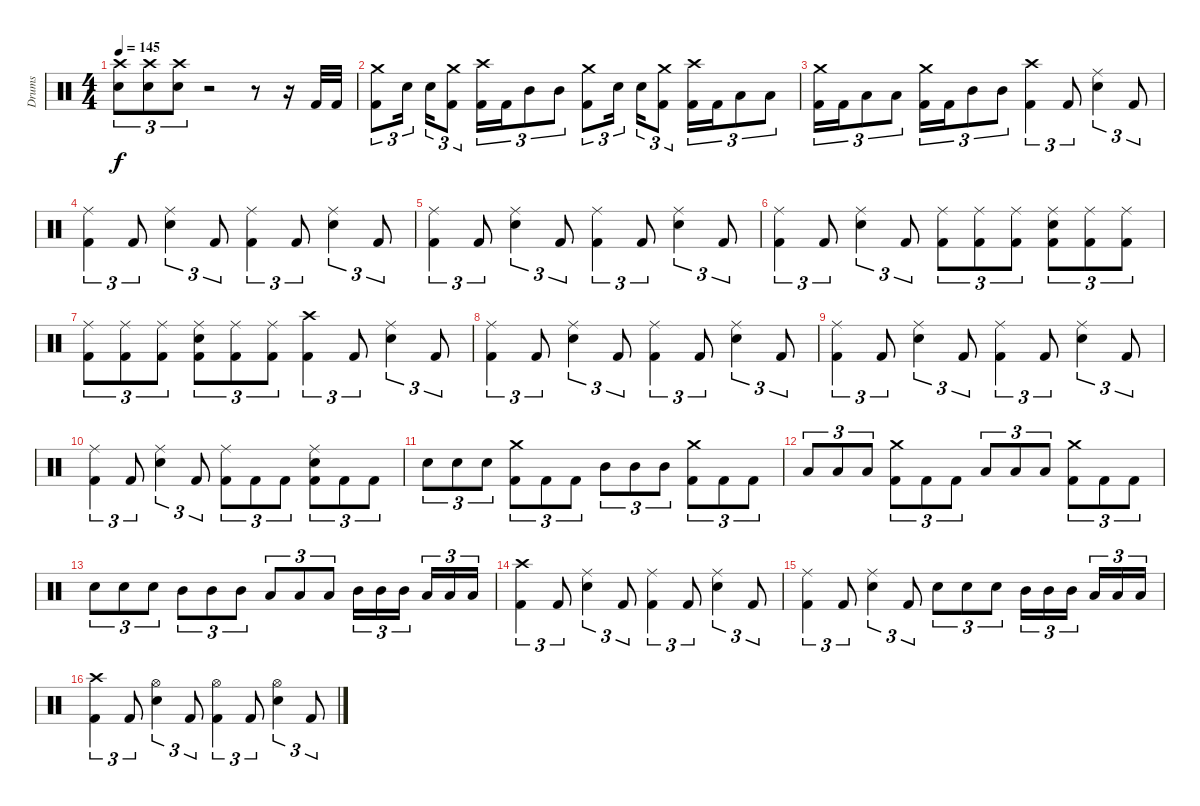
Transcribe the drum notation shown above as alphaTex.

\track ("Drums" "Drums") {instrument percussion}
\staff {score}
\articulation defaults
\ts (4 4)
\tempo 145
\clef neutral
\ks c
("Crash high (hit)" "Electric Snare (hit)").8{tu (3 2) dy f} ("Crash high (hit)" "Electric Snare (hit)").8{tu (3 2)} ("Crash high (hit)" "Electric Snare (hit)").8{tu (3 2)} r.2 r.8 r.16 "Kick (hit) 2".32 "Kick (hit) 2".32 |
("Crash medium (hit)" "Kick (hit) 2").8{tu (3 2)} "Electric Snare (hit)".16{tu (3 2)} "Electric Snare (hit)".16{tu (3 2)} ("Crash medium (hit)" "Kick (hit) 2").8{tu (3 2)} ("Crash high (hit)" "Kick (hit) 2").16{tu (3 2)} "Kick (hit) 2".16{tu (3 2)} "Mid Tom (hit)".8{tu (3 2)} "Mid Tom (hit)".8{tu (3 2)} ("Crash medium (hit)" "Kick (hit) 2").8{tu (3 2)} "Electric Snare (hit)".16{tu (3 2)} "Electric Snare (hit)".16{tu (3 2)} ("Crash medium (hit)" "Kick (hit) 2").8{tu (3 2)} ("Crash high (hit)" "Kick (hit) 2").16{tu (3 2)} "Kick (hit) 2".16{tu (3 2)} "Low Tom (hit)".8{tu (3 2)} "Low Tom (hit)".8{tu (3 2)} |
("Crash medium (hit)" "Kick (hit) 2").16{tu (3 2)} "Kick (hit) 2".16{tu (3 2)} "Low Tom (hit)".8{tu (3 2)} "Low Tom (hit)".8{tu (3 2)} ("Crash medium (hit)" "Kick (hit) 2").16{tu (3 2)} "Kick (hit) 2".16{tu (3 2)} "Mid Tom (hit)".8{tu (3 2)} "Mid Tom (hit)".8{tu (3 2)} ("Crash high (hit)" "Kick (hit) 2").4{tu (3 2)} "Kick (hit) 2".8{tu (3 2)} ("Ride (middle)" "Electric Snare (hit)").4{tu (3 2)} "Kick (hit) 2".8{tu (3 2)} |
("Ride (middle)" "Kick (hit) 2").4{tu (3 2)} "Kick (hit) 2".8{tu (3 2)} ("Ride (middle)" "Electric Snare (hit)").4{tu (3 2)} "Kick (hit) 2".8{tu (3 2)} ("Ride (middle)" "Kick (hit) 2").4{tu (3 2)} "Kick (hit) 2".8{tu (3 2)} ("Ride (middle)" "Electric Snare (hit)").4{tu (3 2)} "Kick (hit) 2".8{tu (3 2)} |
("Ride (middle)" "Kick (hit) 2").4{tu (3 2)} "Kick (hit) 2".8{tu (3 2)} ("Ride (middle)" "Electric Snare (hit)").4{tu (3 2)} "Kick (hit) 2".8{tu (3 2)} ("Ride (middle)" "Kick (hit) 2").4{tu (3 2)} "Kick (hit) 2".8{tu (3 2)} ("Ride (middle)" "Electric Snare (hit)").4{tu (3 2)} "Kick (hit) 2".8{tu (3 2)} |
("Ride (middle)" "Kick (hit) 2").4{tu (3 2)} "Kick (hit) 2".8{tu (3 2)} ("Ride (middle)" "Electric Snare (hit)").4{tu (3 2)} "Kick (hit) 2".8{tu (3 2)} ("Ride (middle)" "Kick (hit) 2").8{tu (3 2)} ("Ride (middle)" "Kick (hit) 2").8{tu (3 2)} ("Ride (middle)" "Kick (hit) 2").8{tu (3 2)} ("Ride (middle)" "Electric Snare (hit)" "Kick (hit) 2").8{tu (3 2)} ("Ride (middle)" "Kick (hit) 2").8{tu (3 2)} ("Ride (middle)" "Kick (hit) 2").8{tu (3 2)} |
("Ride (middle)" "Kick (hit) 2").8{tu (3 2)} ("Ride (middle)" "Kick (hit) 2").8{tu (3 2)} ("Ride (middle)" "Kick (hit) 2").8{tu (3 2)} ("Ride (middle)" "Electric Snare (hit)" "Kick (hit) 2").8{tu (3 2)} ("Ride (middle)" "Kick (hit) 2").8{tu (3 2)} ("Ride (middle)" "Kick (hit) 2").8{tu (3 2)} ("Crash high (hit)" "Kick (hit) 2").4{tu (3 2)} "Kick (hit) 2".8{tu (3 2)} ("Ride (middle)" "Electric Snare (hit)").4{tu (3 2)} "Kick (hit) 2".8{tu (3 2)} |
("Ride (middle)" "Kick (hit) 2").4{tu (3 2)} "Kick (hit) 2".8{tu (3 2)} ("Ride (middle)" "Electric Snare (hit)").4{tu (3 2)} "Kick (hit) 2".8{tu (3 2)} ("Ride (middle)" "Kick (hit) 2").4{tu (3 2)} "Kick (hit) 2".8{tu (3 2)} ("Ride (middle)" "Electric Snare (hit)").4{tu (3 2)} "Kick (hit) 2".8{tu (3 2)} |
("Ride (middle)" "Kick (hit) 2").4{tu (3 2)} "Kick (hit) 2".8{tu (3 2)} ("Ride (middle)" "Electric Snare (hit)").4{tu (3 2)} "Kick (hit) 2".8{tu (3 2)} ("Ride (middle)" "Kick (hit) 2").4{tu (3 2)} "Kick (hit) 2".8{tu (3 2)} ("Ride (middle)" "Electric Snare (hit)").4{tu (3 2)} "Kick (hit) 2".8{tu (3 2)} |
("Ride (middle)" "Kick (hit) 2").4{tu (3 2)} "Kick (hit) 2".8{tu (3 2)} ("Ride (middle)" "Electric Snare (hit)").4{tu (3 2)} "Kick (hit) 2".8{tu (3 2)} ("Ride (middle)" "Kick (hit) 2").8{tu (3 2)} "Kick (hit) 2".8{tu (3 2)} "Kick (hit) 2".8{tu (3 2)} ("Ride (middle)" "Electric Snare (hit)" "Kick (hit) 2").8{tu (3 2)} "Kick (hit) 2".8{tu (3 2)} "Kick (hit) 2".8{tu (3 2)} |
"Electric Snare (hit)".8{tu (3 2)} "Electric Snare (hit)".8{tu (3 2)} "Electric Snare (hit)".8{tu (3 2)} ("Crash medium (hit)" "Kick (hit) 2").8{tu (3 2)} "Kick (hit) 2".8{tu (3 2)} "Kick (hit) 2".8{tu (3 2)} "Mid Tom (hit)".8{tu (3 2)} "Mid Tom (hit)".8{tu (3 2)} "Mid Tom (hit)".8{tu (3 2)} ("Crash medium (hit)" "Kick (hit) 2").8{tu (3 2)} "Kick (hit) 2".8{tu (3 2)} "Kick (hit) 2".8{tu (3 2)} |
"Low Tom (hit)".8{tu (3 2)} "Low Tom (hit)".8{tu (3 2)} "Low Tom (hit)".8{tu (3 2)} ("Crash medium (hit)" "Kick (hit) 2").8{tu (3 2)} "Kick (hit) 2".8{tu (3 2)} "Kick (hit) 2".8{tu (3 2)} "Low Floor Tom (hit)".8{tu (3 2)} "Low Floor Tom (hit)".8{tu (3 2)} "Low Floor Tom (hit)".8{tu (3 2)} ("Crash medium (hit)" "Kick (hit) 2").8{tu (3 2)} "Kick (hit) 2".8{tu (3 2)} "Kick (hit) 2".8{tu (3 2)} |
"Electric Snare (hit)".8{tu (3 2)} "Electric Snare (hit)".8{tu (3 2)} "Electric Snare (hit)".8{tu (3 2)} "Mid Tom (hit)".8{tu (3 2)} "Mid Tom (hit)".8{tu (3 2)} "Mid Tom (hit)".8{tu (3 2)} "Low Tom (hit)".8{tu (3 2)} "Low Tom (hit)".8{tu (3 2)} "Low Tom (hit)".8{tu (3 2)} "Mid Tom (hit)".16{tu (3 2)} "Mid Tom (hit)".16{tu (3 2)} "Mid Tom (hit)".16{tu (3 2)} "Low Tom (hit)".16{tu (3 2)} "Low Tom (hit)".16{tu (3 2)} "Low Tom (hit)".16{tu (3 2)} |
("Crash high (hit)" "Kick (hit) 2").4{tu (3 2)} "Kick (hit) 2".8{tu (3 2)} ("Ride (middle)" "Electric Snare (hit)").4{tu (3 2)} "Kick (hit) 2".8{tu (3 2)} ("Ride (middle)" "Kick (hit) 2").4{tu (3 2)} "Kick (hit) 2".8{tu (3 2)} ("Ride (middle)" "Electric Snare (hit)").4{tu (3 2)} "Kick (hit) 2".8{tu (3 2)} |
("Ride (middle)" "Kick (hit) 2").4{tu (3 2)} "Kick (hit) 2".8{tu (3 2)} ("Ride (middle)" "Electric Snare (hit)").4{tu (3 2)} "Kick (hit) 2".8{tu (3 2)} "Electric Snare (hit)".8{tu (3 2)} "Electric Snare (hit)".8{tu (3 2)} "Electric Snare (hit)".8{tu (3 2)} "Mid Tom (hit)".16{tu (3 2)} "Mid Tom (hit)".16{tu (3 2)} "Mid Tom (hit)".16{tu (3 2)} "Low Tom (hit)".16{tu (3 2)} "Low Tom (hit)".16{tu (3 2)} "Low Tom (hit)".16{tu (3 2)} |
("Crash high (hit)" "Kick (hit) 2").4{tu (3 2)} "Kick (hit) 2".8{tu (3 2)} ("Hi-Hat (open)" "Electric Snare (hit)").4{tu (3 2)} "Kick (hit) 2".8{tu (3 2)} ("Hi-Hat (open)" "Kick (hit) 2").4{tu (3 2)} "Kick (hit) 2".8{tu (3 2)} ("Hi-Hat (open)" "Electric Snare (hit)").4{tu (3 2)} "Kick (hit) 2".8{tu (3 2)}
